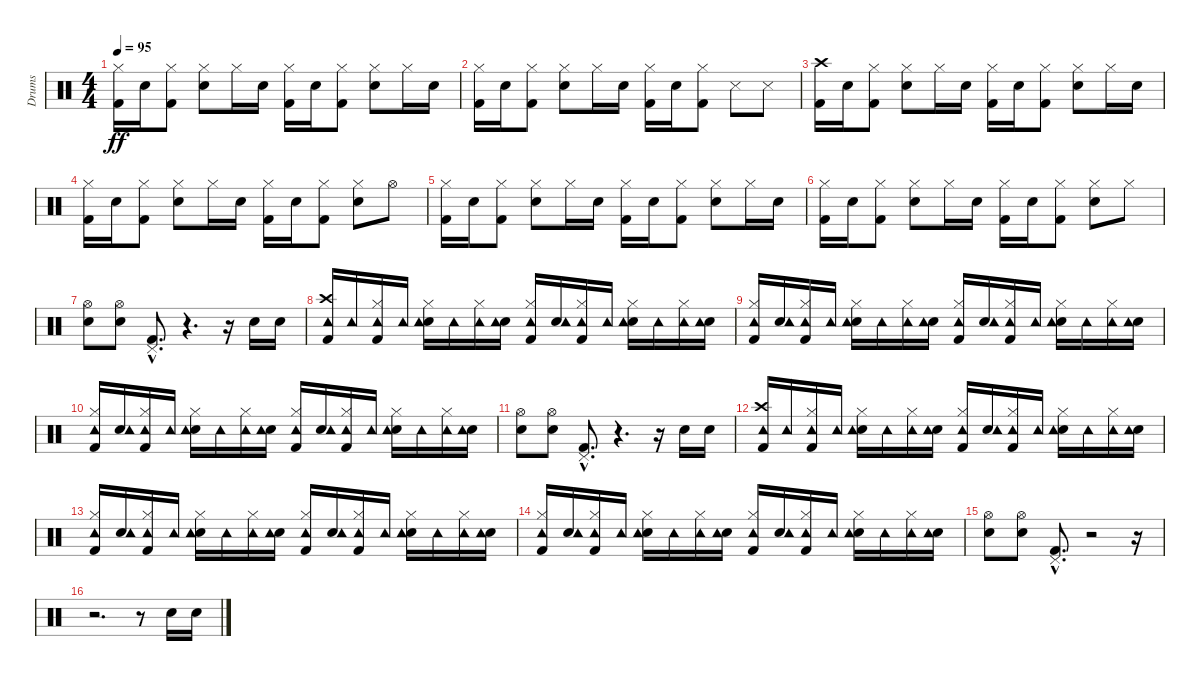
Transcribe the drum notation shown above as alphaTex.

\track ("Drums" "Drums") {instrument percussion}
\staff {score}
\articulation defaults
\ts (4 4)
\tempo 95
\clef neutral
\ks c
("Kick (hit) 2" "Hi-Hat (closed)").16{dy ff} "Electric Snare (hit)".16 ("Kick (hit) 2" "Hi-Hat (closed)").8 ("Electric Snare (hit)" "Hi-Hat (closed)").8 "Hi-Hat (closed)".16 "Electric Snare (hit)".16 ("Kick (hit) 2" "Hi-Hat (closed)").16 "Electric Snare (hit)".16 ("Kick (hit) 2" "Hi-Hat (closed)").8 ("Electric Snare (hit)" "Hi-Hat (closed)").8 "Hi-Hat (closed)".16 "Electric Snare (hit)".16 |
("Kick (hit) 2" "Hi-Hat (closed)").16 "Electric Snare (hit)".16 ("Kick (hit) 2" "Hi-Hat (closed)").8 ("Electric Snare (hit)" "Hi-Hat (closed)").8 "Hi-Hat (closed)".16 "Electric Snare (hit)".16 ("Kick (hit) 2" "Hi-Hat (closed)").16 "Electric Snare (hit)".16 ("Kick (hit) 2" "Hi-Hat (closed)").8 "Snare (side stick) 3".8 "Snare (side stick) 3".8 |
("Kick (hit) 2" "Crash high (hit)").16 "Electric Snare (hit)".16 ("Kick (hit) 2" "Hi-Hat (closed)").8 ("Electric Snare (hit)" "Hi-Hat (closed)").8 "Hi-Hat (closed)".16 "Electric Snare (hit)".16 ("Kick (hit) 2" "Hi-Hat (closed)").16 "Electric Snare (hit)".16 ("Kick (hit) 2" "Hi-Hat (closed)").8 ("Electric Snare (hit)" "Hi-Hat (closed)").8 "Hi-Hat (closed)".16 "Electric Snare (hit)".16 |
("Kick (hit) 2" "Hi-Hat (closed)").16 "Electric Snare (hit)".16 ("Kick (hit) 2" "Hi-Hat (closed)").8 ("Electric Snare (hit)" "Hi-Hat (closed)").8 "Hi-Hat (closed)".16 "Electric Snare (hit)".16 ("Kick (hit) 2" "Hi-Hat (closed)").16 "Electric Snare (hit)".16 ("Kick (hit) 2" "Hi-Hat (closed)").8 ("Electric Snare (hit)" "Hi-Hat (closed)").8 "Hi-Hat (open)".8 |
("Kick (hit) 2" "Hi-Hat (closed)").16 "Electric Snare (hit)".16 ("Kick (hit) 2" "Hi-Hat (closed)").8 ("Electric Snare (hit)" "Hi-Hat (closed)").8 "Hi-Hat (closed)".16 "Electric Snare (hit)".16 ("Kick (hit) 2" "Hi-Hat (closed)").16 "Electric Snare (hit)".16 ("Kick (hit) 2" "Hi-Hat (closed)").8 ("Electric Snare (hit)" "Hi-Hat (closed)").8 "Hi-Hat (closed)".16 "Electric Snare (hit)".16 |
("Kick (hit) 2" "Hi-Hat (closed)").16 "Electric Snare (hit)".16 ("Kick (hit) 2" "Hi-Hat (closed)").8 ("Electric Snare (hit)" "Hi-Hat (closed)").8 "Hi-Hat (closed)".16 "Electric Snare (hit)".16 ("Kick (hit) 2" "Hi-Hat (closed)").16 "Electric Snare (hit)".16 ("Kick (hit) 2" "Hi-Hat (closed)").8 ("Electric Snare (hit)" "Hi-Hat (closed)").8 "Hi-Hat (closed)".8 |
("Electric Snare (hit)" "Hi-Hat (open)").8 ("Electric Snare (hit)" "Hi-Hat (open)").8 ("Kick (hit) 2"{hac} "Pedal Hi-Hat (hit)"{hac}).8{d} r.4{d} r.16 "Hand Clap (hit)".16 "Hand Clap (hit)".16 |
("Kick (hit) 2" "Crash high (hit)" "Tambourine (hit)").16 "Tambourine (hit)".16 ("Kick (hit) 2" "Hi-Hat (closed)" "Tambourine (hit)").16 "Tambourine (hit)".16 ("Electric Snare (hit)" "Hi-Hat (closed)" "Tambourine (hit)").16 "Tambourine (hit)".16 ("Hi-Hat (closed)" "Tambourine (hit)").16 ("Electric Snare (hit)" "Tambourine (hit)").16 ("Kick (hit) 2" "Hi-Hat (closed)" "Tambourine (hit)").16 ("Electric Snare (hit)" "Tambourine (hit)").16 ("Kick (hit) 2" "Hi-Hat (closed)" "Tambourine (hit)").16 "Tambourine (hit)".16 ("Electric Snare (hit)" "Hi-Hat (closed)" "Tambourine (hit)").16 "Tambourine (hit)".16 ("Hi-Hat (closed)" "Tambourine (hit)").16 ("Electric Snare (hit)" "Tambourine (hit)").16 |
("Kick (hit) 2" "Hi-Hat (closed)" "Tambourine (hit)").16 ("Electric Snare (hit)" "Tambourine (hit)").16 ("Kick (hit) 2" "Hi-Hat (closed)" "Tambourine (hit)").16 "Tambourine (hit)".16 ("Electric Snare (hit)" "Hi-Hat (closed)" "Tambourine (hit)").16 "Tambourine (hit)".16 ("Hi-Hat (closed)" "Tambourine (hit)").16 ("Electric Snare (hit)" "Tambourine (hit)").16 ("Kick (hit) 2" "Hi-Hat (closed)" "Tambourine (hit)").16 ("Electric Snare (hit)" "Tambourine (hit)").16 ("Kick (hit) 2" "Hi-Hat (closed)" "Tambourine (hit)").16 "Tambourine (hit)".16 ("Electric Snare (hit)" "Hi-Hat (closed)" "Tambourine (hit)").16 "Tambourine (hit)".16 ("Hi-Hat (closed)" "Tambourine (hit)").16 ("Electric Snare (hit)" "Tambourine (hit)").16 |
("Kick (hit) 2" "Hi-Hat (closed)" "Tambourine (hit)").16 ("Electric Snare (hit)" "Tambourine (hit)").16 ("Kick (hit) 2" "Hi-Hat (closed)" "Tambourine (hit)").16 "Tambourine (hit)".16 ("Electric Snare (hit)" "Hi-Hat (closed)" "Tambourine (hit)").16 "Tambourine (hit)".16 ("Hi-Hat (closed)" "Tambourine (hit)").16 ("Electric Snare (hit)" "Tambourine (hit)").16 ("Kick (hit) 2" "Hi-Hat (closed)" "Tambourine (hit)").16 ("Electric Snare (hit)" "Tambourine (hit)").16 ("Kick (hit) 2" "Hi-Hat (closed)" "Tambourine (hit)").16 "Tambourine (hit)".16 ("Electric Snare (hit)" "Hi-Hat (closed)" "Tambourine (hit)").16 "Tambourine (hit)".16 ("Hi-Hat (closed)" "Tambourine (hit)").16 ("Electric Snare (hit)" "Tambourine (hit)").16 |
("Electric Snare (hit)" "Hi-Hat (open)").8 ("Electric Snare (hit)" "Hi-Hat (open)").8 ("Kick (hit) 2"{hac} "Pedal Hi-Hat (hit)"{hac}).8{d} r.4{d} r.16 "Hand Clap (hit)".16 "Hand Clap (hit)".16 |
("Kick (hit) 2" "Crash high (hit)" "Tambourine (hit)").16 "Tambourine (hit)".16 ("Kick (hit) 2" "Hi-Hat (closed)" "Tambourine (hit)").16 "Tambourine (hit)".16 ("Electric Snare (hit)" "Hi-Hat (closed)" "Tambourine (hit)").16 "Tambourine (hit)".16 ("Hi-Hat (closed)" "Tambourine (hit)").16 ("Electric Snare (hit)" "Tambourine (hit)").16 ("Kick (hit) 2" "Hi-Hat (closed)" "Tambourine (hit)").16 ("Electric Snare (hit)" "Tambourine (hit)").16 ("Kick (hit) 2" "Hi-Hat (closed)" "Tambourine (hit)").16 "Tambourine (hit)".16 ("Electric Snare (hit)" "Hi-Hat (closed)" "Tambourine (hit)").16 "Tambourine (hit)".16 ("Hi-Hat (closed)" "Tambourine (hit)").16 ("Electric Snare (hit)" "Tambourine (hit)").16 |
("Kick (hit) 2" "Hi-Hat (closed)" "Tambourine (hit)").16 ("Electric Snare (hit)" "Tambourine (hit)").16 ("Kick (hit) 2" "Hi-Hat (closed)" "Tambourine (hit)").16 "Tambourine (hit)".16 ("Electric Snare (hit)" "Hi-Hat (closed)" "Tambourine (hit)").16 "Tambourine (hit)".16 ("Hi-Hat (closed)" "Tambourine (hit)").16 ("Electric Snare (hit)" "Tambourine (hit)").16 ("Kick (hit) 2" "Hi-Hat (closed)" "Tambourine (hit)").16 ("Electric Snare (hit)" "Tambourine (hit)").16 ("Kick (hit) 2" "Hi-Hat (closed)" "Tambourine (hit)").16 "Tambourine (hit)".16 ("Electric Snare (hit)" "Hi-Hat (closed)" "Tambourine (hit)").16 "Tambourine (hit)".16 ("Hi-Hat (closed)" "Tambourine (hit)").16 ("Electric Snare (hit)" "Tambourine (hit)").16 |
("Kick (hit) 2" "Hi-Hat (closed)" "Tambourine (hit)").16 ("Electric Snare (hit)" "Tambourine (hit)").16 ("Kick (hit) 2" "Hi-Hat (closed)" "Tambourine (hit)").16 "Tambourine (hit)".16 ("Electric Snare (hit)" "Hi-Hat (closed)" "Tambourine (hit)").16 "Tambourine (hit)".16 ("Hi-Hat (closed)" "Tambourine (hit)").16 ("Electric Snare (hit)" "Tambourine (hit)").16 ("Kick (hit) 2" "Hi-Hat (closed)" "Tambourine (hit)").16 ("Electric Snare (hit)" "Tambourine (hit)").16 ("Kick (hit) 2" "Hi-Hat (closed)" "Tambourine (hit)").16 "Tambourine (hit)".16 ("Electric Snare (hit)" "Hi-Hat (closed)" "Tambourine (hit)").16 "Tambourine (hit)".16 ("Hi-Hat (closed)" "Tambourine (hit)").16 ("Electric Snare (hit)" "Tambourine (hit)").16 |
("Electric Snare (hit)" "Hi-Hat (open)").8 ("Electric Snare (hit)" "Hi-Hat (open)").8 ("Kick (hit) 2"{hac} "Pedal Hi-Hat (hit)"{hac}).8{d} r.2 r.16 |
r.2{d} r.8 "Hand Clap (hit)".16 "Hand Clap (hit)".16
